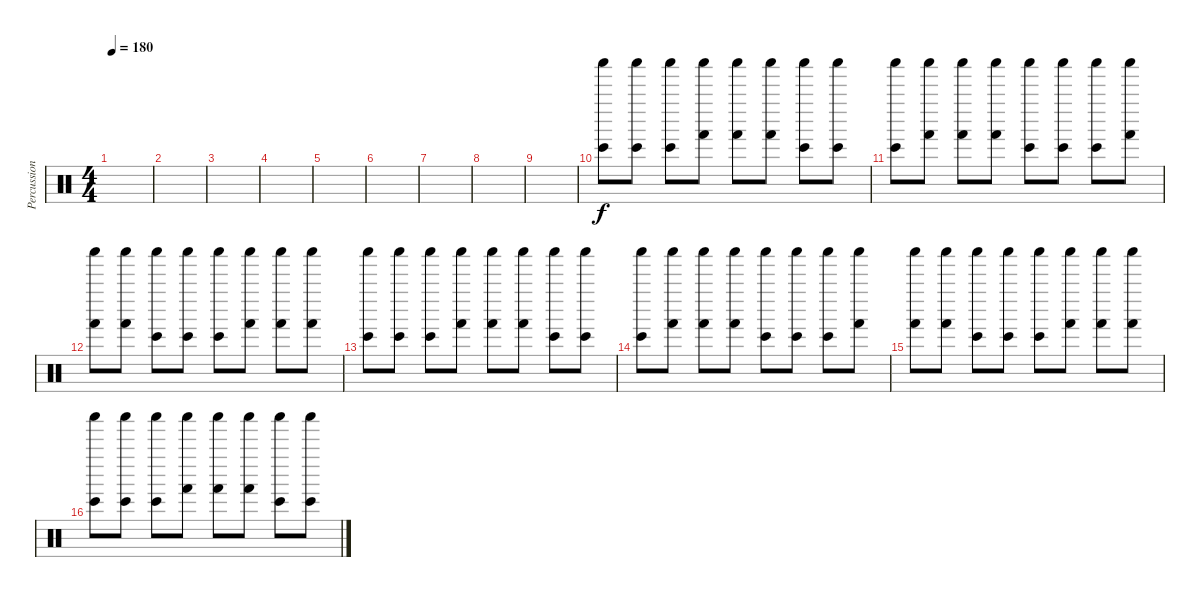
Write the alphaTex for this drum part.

\track ("Percussion" "Percussion") {instrument percussion}
\staff {score}
\articulation defaults
\ts (4 4)
\tempo 180
\clef neutral
\ks c
|
|
|
|
|
|
|
|
|
("Shaker (hit)" "Bongo High (hit)").8 ("Shaker (hit)" "Bongo High (hit)").8 ("Shaker (hit)" "Bongo High (hit)").8 ("Shaker (hit)" "Hand (hit)").8 ("Shaker (hit)" "Hand (hit)").8 ("Shaker (hit)" "Hand (hit)").8 ("Shaker (hit)" "Bongo High (hit)").8 ("Shaker (hit)" "Bongo High (hit)").8 |
("Shaker (hit)" "Bongo High (hit)").8 ("Shaker (hit)" "Hand (hit)").8 ("Shaker (hit)" "Hand (hit)").8 ("Shaker (hit)" "Hand (hit)").8 ("Shaker (hit)" "Bongo High (hit)").8 ("Shaker (hit)" "Bongo High (hit)").8 ("Shaker (hit)" "Bongo High (hit)").8 ("Shaker (hit)" "Hand (hit)").8 |
("Shaker (hit)" "Hand (hit)").8 ("Shaker (hit)" "Hand (hit)").8 ("Shaker (hit)" "Bongo High (hit)").8 ("Shaker (hit)" "Bongo High (hit)").8 ("Shaker (hit)" "Bongo High (hit)").8 ("Shaker (hit)" "Hand (hit)").8 ("Shaker (hit)" "Hand (hit)").8 ("Shaker (hit)" "Hand (hit)").8 |
("Shaker (hit)" "Bongo High (hit)").8 ("Shaker (hit)" "Bongo High (hit)").8 ("Shaker (hit)" "Bongo High (hit)").8 ("Shaker (hit)" "Hand (hit)").8 ("Shaker (hit)" "Hand (hit)").8 ("Shaker (hit)" "Hand (hit)").8 ("Shaker (hit)" "Bongo High (hit)").8 ("Shaker (hit)" "Bongo High (hit)").8 |
("Shaker (hit)" "Bongo High (hit)").8 ("Shaker (hit)" "Hand (hit)").8 ("Shaker (hit)" "Hand (hit)").8 ("Shaker (hit)" "Hand (hit)").8 ("Shaker (hit)" "Bongo High (hit)").8 ("Shaker (hit)" "Bongo High (hit)").8 ("Shaker (hit)" "Bongo High (hit)").8 ("Shaker (hit)" "Hand (hit)").8 |
("Shaker (hit)" "Hand (hit)").8 ("Shaker (hit)" "Hand (hit)").8 ("Shaker (hit)" "Bongo High (hit)").8 ("Shaker (hit)" "Bongo High (hit)").8 ("Shaker (hit)" "Bongo High (hit)").8 ("Shaker (hit)" "Hand (hit)").8 ("Shaker (hit)" "Hand (hit)").8 ("Shaker (hit)" "Hand (hit)").8 |
("Shaker (hit)" "Bongo High (hit)").8 ("Shaker (hit)" "Bongo High (hit)").8 ("Shaker (hit)" "Bongo High (hit)").8 ("Shaker (hit)" "Hand (hit)").8 ("Shaker (hit)" "Hand (hit)").8 ("Shaker (hit)" "Hand (hit)").8 ("Shaker (hit)" "Bongo High (hit)").8 ("Shaker (hit)" "Bongo High (hit)").8
